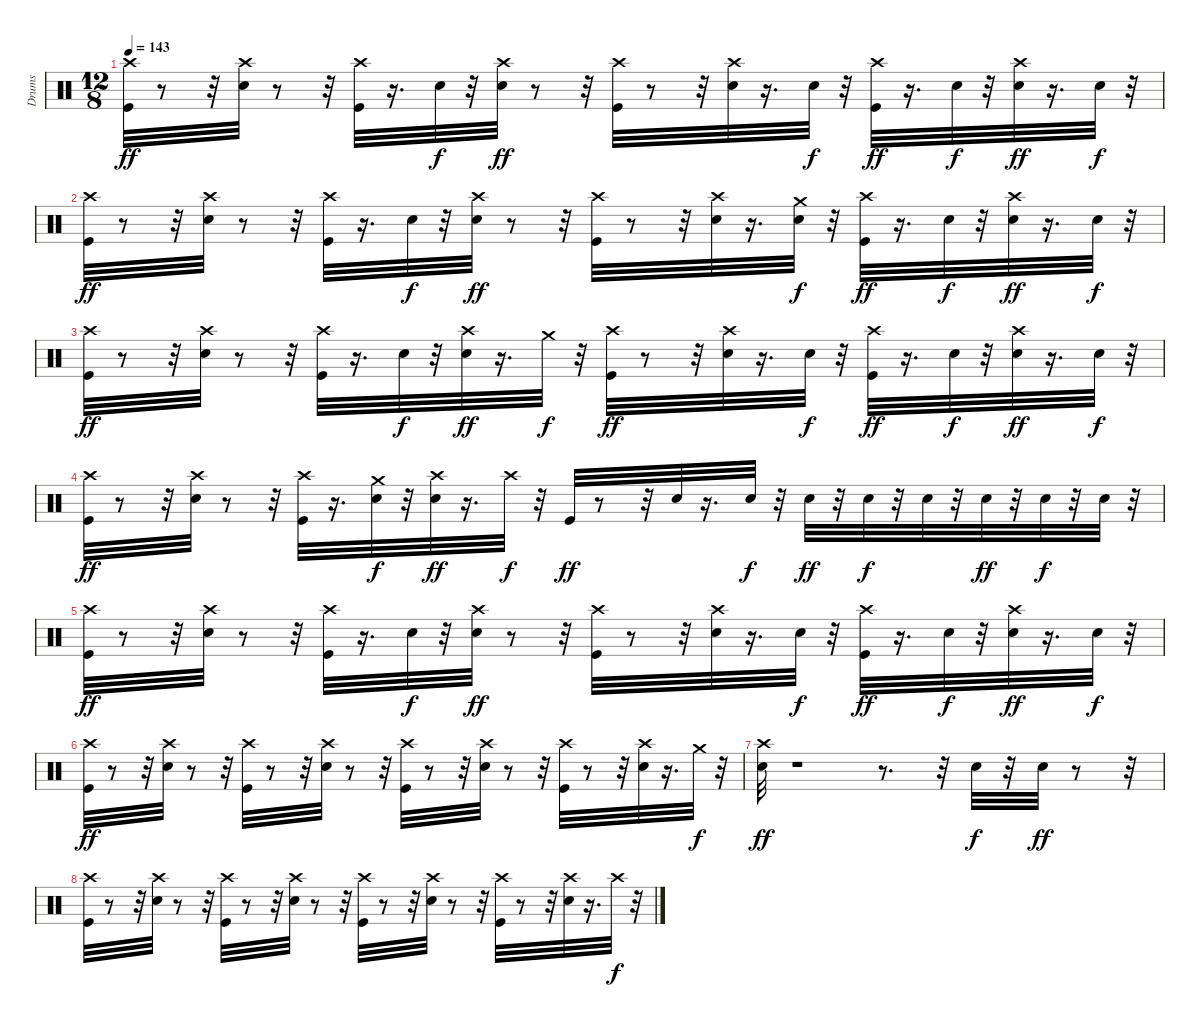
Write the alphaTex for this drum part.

\track ("Drums" "Drums") {instrument percussion}
\staff {score}
\articulation defaults
\ts (12 8)
\tempo 143
\clef neutral
\ks c
("Crash high (hit)" "Kick (hit)").32{dy ff} r.8 r.32 ("Crash high (hit)" "Snare (hit) 2").32 r.8 r.32 ("Crash high (hit)" "Kick (hit)").32 r.16{d} "Snare (hit) 2".32{dy f} r.32 ("Crash high (hit)" "Snare (hit) 2").32{dy ff} r.8 r.32 ("Crash high (hit)" "Kick (hit)").32 r.8 r.32 ("Crash high (hit)" "Snare (hit) 2").32 r.16{d} "Snare (hit) 2".32{dy f} r.32 ("Crash high (hit)" "Kick (hit)").32{dy ff} r.16{d} "Snare (hit) 2".32{dy f} r.32 ("Crash high (hit)" "Snare (hit) 2").32{dy ff} r.16{d} "Snare (hit) 2".32{dy f} r.32 |
("Crash high (hit)" "Kick (hit)").32{dy ff} r.8 r.32 ("Crash high (hit)" "Snare (hit) 2").32 r.8 r.32 ("Crash high (hit)" "Kick (hit)").32 r.16{d} "Snare (hit) 2".32{dy f} r.32 ("Crash high (hit)" "Snare (hit) 2").32{dy ff} r.8 r.32 ("Crash high (hit)" "Kick (hit)").32 r.8 r.32 ("Crash high (hit)" "Snare (hit) 2").32 r.16{d} ("Crash medium (hit)" "Snare (hit) 2").32{dy f} r.32 ("Crash high (hit)" "Kick (hit)").32{dy ff} r.16{d} "Snare (hit) 2".32{dy f} r.32 ("Crash high (hit)" "Snare (hit) 2").32{dy ff} r.16{d} "Snare (hit) 2".32{dy f} r.32 |
("Crash high (hit)" "Kick (hit)").32{dy ff} r.8 r.32 ("Crash high (hit)" "Snare (hit) 2").32 r.8 r.32 ("Crash high (hit)" "Kick (hit)").32 r.16{d} "Snare (hit) 2".32{dy f} r.32 ("Crash high (hit)" "Snare (hit) 2").32{dy ff} r.16{d} "Crash medium (hit)".32{dy f} r.32 ("Crash high (hit)" "Kick (hit)").32{dy ff} r.8 r.32 ("Crash high (hit)" "Snare (hit) 2").32 r.16{d} "Snare (hit) 2".32{dy f} r.32 ("Crash high (hit)" "Kick (hit)").32{dy ff} r.16{d} "Snare (hit) 2".32{dy f} r.32 ("Crash high (hit)" "Snare (hit) 2").32{dy ff} r.16{d} "Snare (hit) 2".32{dy f} r.32 |
("Crash high (hit)" "Kick (hit)").32{dy ff} r.8 r.32 ("Crash high (hit)" "Snare (hit) 2").32 r.8 r.32 ("Crash high (hit)" "Kick (hit)").32 r.16{d} ("Crash medium (hit)" "Snare (hit) 2").32{dy f} r.32 ("Crash high (hit)" "Snare (hit) 2").32{dy ff} r.16{d} "Crash high (hit)".32{dy f} r.32 "Kick (hit)".32{dy ff} r.8 r.32 "Snare (hit) 2".32 r.16{d} "Electric Snare (hit)".32{dy f} r.32 "Snare (hit) 2".32{dy ff} r.32 "Snare (hit) 2".32{dy f} r.32 "Snare (hit) 2".32 r.32 "Snare (hit) 2".32{dy ff} r.32 "Snare (hit) 2".32{dy f} r.32 "Snare (hit) 2".32 r.32 |
("Crash high (hit)" "Kick (hit)").32{dy ff} r.8 r.32 ("Crash high (hit)" "Snare (hit) 2").32 r.8 r.32 ("Crash high (hit)" "Kick (hit)").32 r.16{d} "Snare (hit) 2".32{dy f} r.32 ("Crash high (hit)" "Snare (hit) 2").32{dy ff} r.8 r.32 ("Crash high (hit)" "Kick (hit)").32 r.8 r.32 ("Crash high (hit)" "Snare (hit) 2").32 r.16{d} "Snare (hit) 2".32{dy f} r.32 ("Crash high (hit)" "Kick (hit)").32{dy ff} r.16{d} "Snare (hit) 2".32{dy f} r.32 ("Crash high (hit)" "Snare (hit) 2").32{dy ff} r.16{d} "Snare (hit) 2".32{dy f} r.32 |
("Crash high (hit)" "Kick (hit)").32{dy ff} r.8 r.32 ("Crash high (hit)" "Snare (hit) 2").32 r.8 r.32 ("Crash high (hit)" "Kick (hit)").32 r.8 r.32 ("Crash high (hit)" "Snare (hit) 2").32 r.8 r.32 ("Crash high (hit)" "Kick (hit)").32 r.8 r.32 ("Crash high (hit)" "Snare (hit) 2").32 r.8 r.32 ("Crash high (hit)" "Kick (hit)").32 r.8 r.32 ("Crash high (hit)" "Snare (hit) 2").32 r.16{d} "Crash medium (hit)".32{dy f} r.32 |
("Snare (hit) 2" "Crash high (hit)").32{dy ff} r.1 r.8{d} r.32 "Snare (hit) 2".32{dy f} r.32 "Electric Snare (hit)".32{dy ff} r.8 r.32 |
("Crash high (hit)" "Kick (hit)").32 r.8 r.32 ("Crash high (hit)" "Snare (hit) 2").32 r.8 r.32 ("Crash high (hit)" "Kick (hit)").32 r.8 r.32 ("Crash high (hit)" "Snare (hit) 2").32 r.8 r.32 ("Crash high (hit)" "Kick (hit)").32 r.8 r.32 ("Crash high (hit)" "Snare (hit) 2").32 r.8 r.32 ("Crash high (hit)" "Kick (hit)").32 r.8 r.32 ("Crash high (hit)" "Snare (hit) 2").32 r.16{d} "Crash high (hit)".32{dy f} r.32
